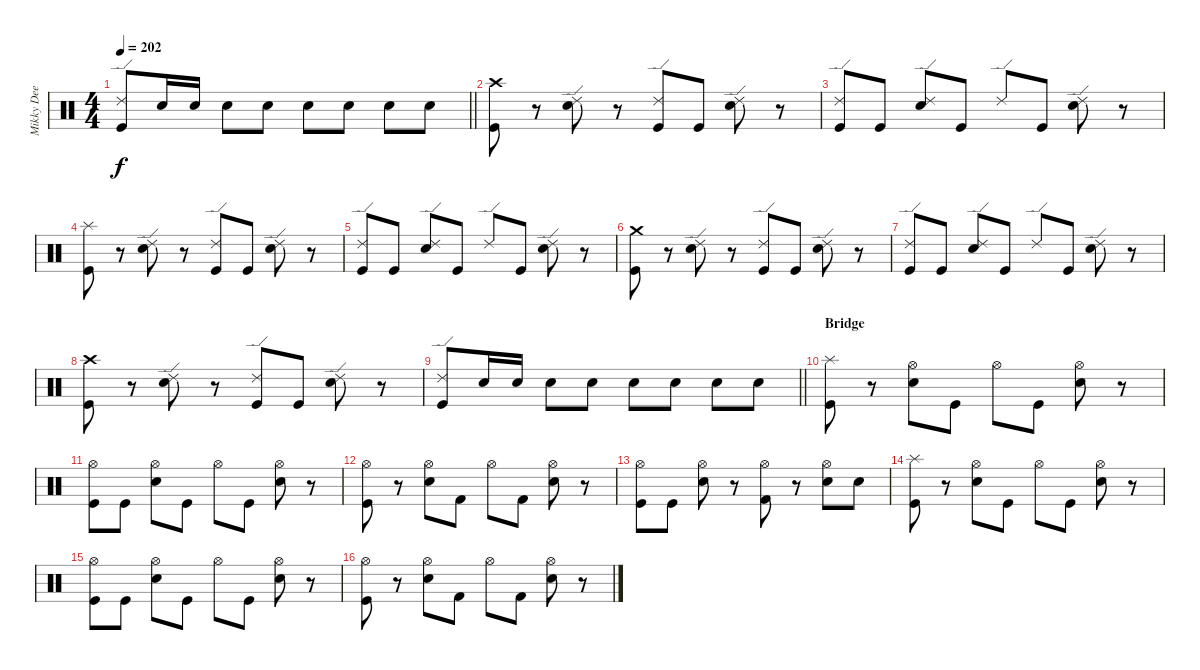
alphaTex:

\track ("Mikky Dee" "Mikky Dee") {instrument percussion}
\staff {score}
\articulation defaults
\ts (4 4)
\tempo 202
\clef neutral
\barLineRight lightlight
\ks c
("Ride (edge) 2" "Kick (hit)").8{dy f} "Electric Snare (hit)".16 "Electric Snare (hit)".16 "Electric Snare (hit)".8 "Electric Snare (hit)".8 "Electric Snare (hit)".8 "Electric Snare (hit)".8 "Electric Snare (hit)".8 "Electric Snare (hit)".8 |
("Crash high (hit)" "Kick (hit)").8 r.8 ("Ride (edge) 2" "Electric Snare (hit)").8 r.8 ("Ride (edge) 2" "Kick (hit)").8 "Kick (hit)".8 ("Ride (edge) 2" "Electric Snare (hit)").8 r.8 |
("Ride (edge) 2" "Kick (hit)").8 "Kick (hit)".8 ("Ride (edge) 2" "Electric Snare (hit)").8 "Kick (hit)".8 "Ride (edge) 2".8 "Kick (hit)".8 ("Ride (edge) 2" "Electric Snare (hit)").8 r.8 |
("Splash (hit)" "Kick (hit)").8 r.8 ("Ride (edge) 2" "Electric Snare (hit)").8 r.8 ("Ride (edge) 2" "Kick (hit)").8 "Kick (hit)".8 ("Ride (edge) 2" "Electric Snare (hit)").8 r.8 |
("Ride (edge) 2" "Kick (hit)").8 "Kick (hit)".8 ("Ride (edge) 2" "Electric Snare (hit)").8 "Kick (hit)".8 "Ride (edge) 2".8 "Kick (hit)".8 ("Ride (edge) 2" "Electric Snare (hit)").8 r.8 |
("Crash medium (hit)" "Kick (hit)").8 r.8 ("Ride (edge) 2" "Electric Snare (hit)").8 r.8 ("Ride (edge) 2" "Kick (hit)").8 "Kick (hit)".8 ("Ride (edge) 2" "Electric Snare (hit)").8 r.8 |
("Ride (edge) 2" "Kick (hit)").8 "Kick (hit)".8 ("Ride (edge) 2" "Electric Snare (hit)").8 "Kick (hit)".8 "Ride (edge) 2".8 "Kick (hit)".8 ("Ride (edge) 2" "Electric Snare (hit)").8 r.8 |
("Crash high (hit)" "Kick (hit)").8 r.8 ("Ride (edge) 2" "Electric Snare (hit)").8 r.8 ("Ride (edge) 2" "Kick (hit)").8 "Kick (hit)".8 ("Ride (edge) 2" "Electric Snare (hit)").8 r.8 |
\barLineRight lightlight
("Ride (edge) 2" "Kick (hit)").8 "Electric Snare (hit)".16 "Electric Snare (hit)".16 "Electric Snare (hit)".8 "Electric Snare (hit)".8 "Electric Snare (hit)".8 "Electric Snare (hit)".8 "Electric Snare (hit)".8 "Electric Snare (hit)".8 |
\section ("" "Bridge")
("Splash (hit)" "Kick (hit)").8 r.8 ("Hi-Hat (open)" "Electric Snare (hit)").8 "Kick (hit)".8 "Hi-Hat (open)".8 "Kick (hit)".8 ("Hi-Hat (open)" "Electric Snare (hit)").8 r.8 |
("Hi-Hat (open)" "Kick (hit)").8 "Kick (hit)".8 ("Hi-Hat (open)" "Electric Snare (hit)").8 "Kick (hit)".8 "Hi-Hat (open)".8 "Kick (hit)".8 ("Hi-Hat (open)" "Electric Snare (hit)").8 r.8 |
("Hi-Hat (open)" "Kick (hit)").8 r.8 ("Hi-Hat (open)" "Electric Snare (hit)").8 "Kick (hit) 2".8 "Hi-Hat (open)".8 "Kick (hit) 2".8 ("Hi-Hat (open)" "Electric Snare (hit)").8 r.8 |
("Hi-Hat (open)" "Kick (hit)").8 "Kick (hit)".8 ("Hi-Hat (open)" "Electric Snare (hit)").8 r.8 ("Hi-Hat (open)" "Kick (hit) 2").8 r.8 ("Hi-Hat (open)" "Electric Snare (hit)").8 "Electric Snare (hit)".8 |
("Splash (hit)" "Kick (hit)").8 r.8 ("Hi-Hat (open)" "Electric Snare (hit)").8 "Kick (hit)".8 "Hi-Hat (open)".8 "Kick (hit)".8 ("Hi-Hat (open)" "Electric Snare (hit)").8 r.8 |
("Hi-Hat (open)" "Kick (hit)").8 "Kick (hit)".8 ("Hi-Hat (open)" "Electric Snare (hit)").8 "Kick (hit)".8 "Hi-Hat (open)".8 "Kick (hit)".8 ("Hi-Hat (open)" "Electric Snare (hit)").8 r.8 |
("Hi-Hat (open)" "Kick (hit)").8 r.8 ("Hi-Hat (open)" "Electric Snare (hit)").8 "Kick (hit) 2".8 "Hi-Hat (open)".8 "Kick (hit) 2".8 ("Hi-Hat (open)" "Electric Snare (hit)").8 r.8
